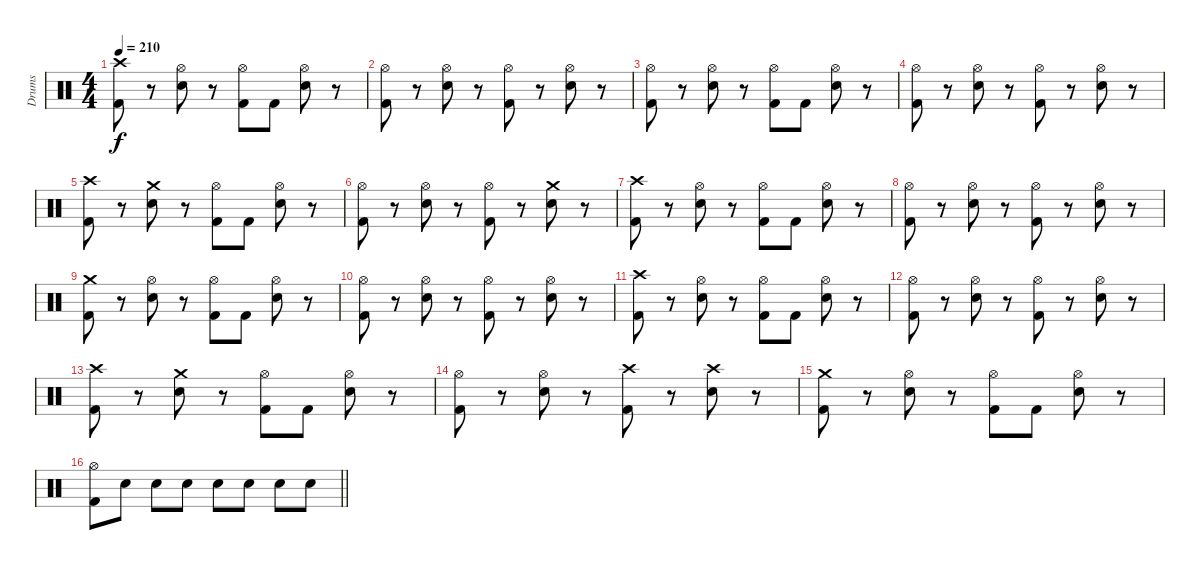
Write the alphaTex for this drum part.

\track ("Drums" "Drums") {instrument percussion}
\staff {score}
\articulation defaults
\ts (4 4)
\tempo 210
\clef neutral
\ks c
("Crash high (hit)" "Kick (hit) 2").8{dy f} r.8 ("Hi-Hat (open)" "Electric Snare (hit)").8 r.8 ("Hi-Hat (open)" "Kick (hit) 2").8 "Kick (hit) 2".8 ("Hi-Hat (open)" "Electric Snare (hit)").8 r.8 |
("Hi-Hat (open)" "Kick (hit) 2").8 r.8 ("Hi-Hat (open)" "Electric Snare (hit)").8 r.8 ("Hi-Hat (open)" "Kick (hit) 2").8 r.8 ("Hi-Hat (open)" "Electric Snare (hit)").8 r.8 |
("Hi-Hat (open)" "Kick (hit) 2").8 r.8 ("Hi-Hat (open)" "Electric Snare (hit)").8 r.8 ("Hi-Hat (open)" "Kick (hit) 2").8 "Kick (hit) 2".8 ("Hi-Hat (open)" "Electric Snare (hit)").8 r.8 |
("Hi-Hat (open)" "Kick (hit) 2").8 r.8 ("Hi-Hat (open)" "Electric Snare (hit)").8 r.8 ("Hi-Hat (open)" "Kick (hit) 2").8 r.8 ("Hi-Hat (open)" "Electric Snare (hit)").8 r.8 |
("Crash high (hit)" "Kick (hit) 2").8 r.8 ("Crash medium (hit)" "Electric Snare (hit)").8 r.8 ("Hi-Hat (open)" "Kick (hit) 2").8 "Kick (hit) 2".8 ("Hi-Hat (open)" "Electric Snare (hit)").8 r.8 |
("Hi-Hat (open)" "Kick (hit) 2").8 r.8 ("Hi-Hat (open)" "Electric Snare (hit)").8 r.8 ("Hi-Hat (open)" "Kick (hit) 2").8 r.8 ("Crash medium (hit)" "Electric Snare (hit)").8 r.8 |
("Crash high (hit)" "Kick (hit) 2").8 r.8 ("Hi-Hat (open)" "Electric Snare (hit)").8 r.8 ("Hi-Hat (open)" "Kick (hit) 2").8 "Kick (hit) 2".8 ("Hi-Hat (open)" "Electric Snare (hit)").8 r.8 |
("Hi-Hat (open)" "Kick (hit) 2").8 r.8 ("Hi-Hat (open)" "Electric Snare (hit)").8 r.8 ("Hi-Hat (open)" "Kick (hit) 2").8 r.8 ("Hi-Hat (open)" "Electric Snare (hit)").8 r.8 |
("Crash medium (hit)" "Kick (hit) 2").8 r.8 ("Hi-Hat (open)" "Electric Snare (hit)").8 r.8 ("Hi-Hat (open)" "Kick (hit) 2").8 "Kick (hit) 2".8 ("Hi-Hat (open)" "Electric Snare (hit)").8 r.8 |
("Hi-Hat (open)" "Kick (hit) 2").8 r.8 ("Hi-Hat (open)" "Electric Snare (hit)").8 r.8 ("Hi-Hat (open)" "Kick (hit) 2").8 r.8 ("Hi-Hat (open)" "Electric Snare (hit)").8 r.8 |
("Crash high (hit)" "Kick (hit) 2").8 r.8 ("Hi-Hat (open)" "Electric Snare (hit)").8 r.8 ("Hi-Hat (open)" "Kick (hit) 2").8 "Kick (hit) 2".8 ("Hi-Hat (open)" "Electric Snare (hit)").8 r.8 |
("Hi-Hat (open)" "Kick (hit) 2").8 r.8 ("Hi-Hat (open)" "Electric Snare (hit)").8 r.8 ("Hi-Hat (open)" "Kick (hit) 2").8 r.8 ("Hi-Hat (open)" "Electric Snare (hit)").8 r.8 |
("Crash high (hit)" "Kick (hit) 2").8 r.8 ("Crash medium (hit)" "Electric Snare (hit)").8 r.8 ("Hi-Hat (open)" "Kick (hit) 2").8 "Kick (hit) 2".8 ("Hi-Hat (open)" "Electric Snare (hit)").8 r.8 |
("Hi-Hat (open)" "Kick (hit) 2").8 r.8 ("Hi-Hat (open)" "Electric Snare (hit)").8 r.8 ("Crash high (hit)" "Kick (hit) 2").8 r.8 ("Crash high (hit)" "Electric Snare (hit)").8 r.8 |
("Crash medium (hit)" "Kick (hit) 2").8 r.8 ("Hi-Hat (open)" "Electric Snare (hit)").8 r.8 ("Hi-Hat (open)" "Kick (hit) 2").8 "Kick (hit) 2".8 ("Hi-Hat (open)" "Electric Snare (hit)").8 r.8 |
\barLineRight lightlight
("Hi-Hat (open)" "Kick (hit) 2").8 "Electric Snare (hit)".8 "Electric Snare (hit)".8 "Electric Snare (hit)".8 "Electric Snare (hit)".8 "Electric Snare (hit)".8 "Electric Snare (hit)".8 "Electric Snare (hit)".8
